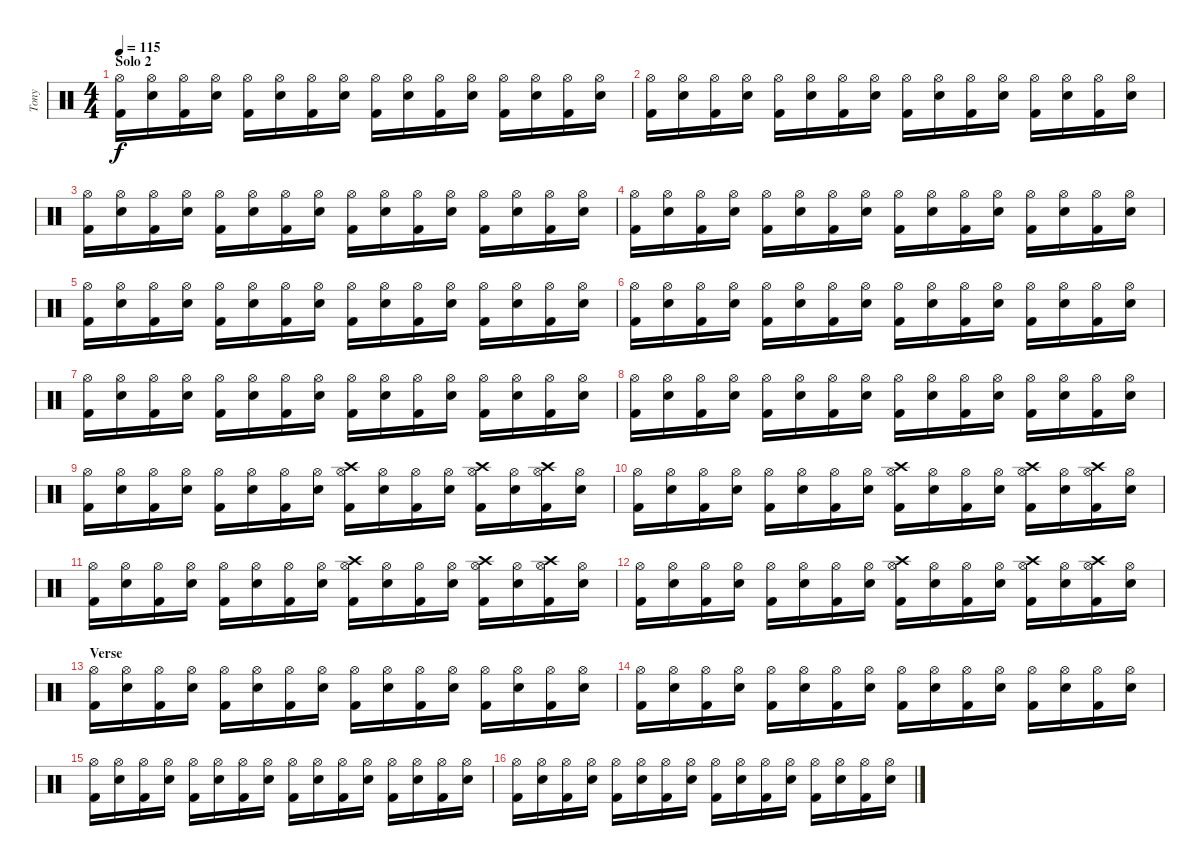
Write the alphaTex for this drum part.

\track ("Tony" "Tony") {instrument percussion}
\staff {score}
\articulation defaults
\ts (4 4)
\section ("" "Solo 2")
\tempo 115
\clef neutral
\ks c
("Kick (hit) 2" "Hi-Hat (open)").16{dy f} ("Electric Snare (hit)" "Hi-Hat (open)").16 ("Kick (hit) 2" "Hi-Hat (open)").16 ("Electric Snare (hit)" "Hi-Hat (open)").16 ("Kick (hit) 2" "Hi-Hat (open)").16 ("Electric Snare (hit)" "Hi-Hat (open)").16 ("Kick (hit) 2" "Hi-Hat (open)").16 ("Electric Snare (hit)" "Hi-Hat (open)").16 ("Kick (hit) 2" "Hi-Hat (open)").16 ("Electric Snare (hit)" "Hi-Hat (open)").16 ("Kick (hit) 2" "Hi-Hat (open)").16 ("Electric Snare (hit)" "Hi-Hat (open)").16 ("Kick (hit) 2" "Hi-Hat (open)").16 ("Electric Snare (hit)" "Hi-Hat (open)").16 ("Kick (hit) 2" "Hi-Hat (open)").16 ("Electric Snare (hit)" "Hi-Hat (open)").16 |
("Kick (hit) 2" "Hi-Hat (open)").16 ("Electric Snare (hit)" "Hi-Hat (open)").16 ("Kick (hit) 2" "Hi-Hat (open)").16 ("Electric Snare (hit)" "Hi-Hat (open)").16 ("Kick (hit) 2" "Hi-Hat (open)").16 ("Electric Snare (hit)" "Hi-Hat (open)").16 ("Kick (hit) 2" "Hi-Hat (open)").16 ("Electric Snare (hit)" "Hi-Hat (open)").16 ("Kick (hit) 2" "Hi-Hat (open)").16 ("Electric Snare (hit)" "Hi-Hat (open)").16 ("Kick (hit) 2" "Hi-Hat (open)").16 ("Electric Snare (hit)" "Hi-Hat (open)").16 ("Kick (hit) 2" "Hi-Hat (open)").16 ("Electric Snare (hit)" "Hi-Hat (open)").16 ("Kick (hit) 2" "Hi-Hat (open)").16 ("Electric Snare (hit)" "Hi-Hat (open)").16 |
("Kick (hit) 2" "Hi-Hat (open)").16 ("Electric Snare (hit)" "Hi-Hat (open)").16 ("Kick (hit) 2" "Hi-Hat (open)").16 ("Electric Snare (hit)" "Hi-Hat (open)").16 ("Kick (hit) 2" "Hi-Hat (open)").16 ("Electric Snare (hit)" "Hi-Hat (open)").16 ("Kick (hit) 2" "Hi-Hat (open)").16 ("Electric Snare (hit)" "Hi-Hat (open)").16 ("Kick (hit) 2" "Hi-Hat (open)").16 ("Electric Snare (hit)" "Hi-Hat (open)").16 ("Kick (hit) 2" "Hi-Hat (open)").16 ("Electric Snare (hit)" "Hi-Hat (open)").16 ("Kick (hit) 2" "Hi-Hat (open)").16 ("Electric Snare (hit)" "Hi-Hat (open)").16 ("Kick (hit) 2" "Hi-Hat (open)").16 ("Electric Snare (hit)" "Hi-Hat (open)").16 |
("Kick (hit) 2" "Hi-Hat (open)").16 ("Electric Snare (hit)" "Hi-Hat (open)").16 ("Kick (hit) 2" "Hi-Hat (open)").16 ("Electric Snare (hit)" "Hi-Hat (open)").16 ("Kick (hit) 2" "Hi-Hat (open)").16 ("Electric Snare (hit)" "Hi-Hat (open)").16 ("Kick (hit) 2" "Hi-Hat (open)").16 ("Electric Snare (hit)" "Hi-Hat (open)").16 ("Kick (hit) 2" "Hi-Hat (open)").16 ("Electric Snare (hit)" "Hi-Hat (open)").16 ("Kick (hit) 2" "Hi-Hat (open)").16 ("Electric Snare (hit)" "Hi-Hat (open)").16 ("Kick (hit) 2" "Hi-Hat (open)").16 ("Electric Snare (hit)" "Hi-Hat (open)").16 ("Kick (hit) 2" "Hi-Hat (open)").16 ("Electric Snare (hit)" "Hi-Hat (open)").16 |
("Kick (hit) 2" "Hi-Hat (open)").16 ("Electric Snare (hit)" "Hi-Hat (open)").16 ("Kick (hit) 2" "Hi-Hat (open)").16 ("Electric Snare (hit)" "Hi-Hat (open)").16 ("Kick (hit) 2" "Hi-Hat (open)").16 ("Electric Snare (hit)" "Hi-Hat (open)").16 ("Kick (hit) 2" "Hi-Hat (open)").16 ("Electric Snare (hit)" "Hi-Hat (open)").16 ("Kick (hit) 2" "Hi-Hat (open)").16 ("Electric Snare (hit)" "Hi-Hat (open)").16 ("Kick (hit) 2" "Hi-Hat (open)").16 ("Electric Snare (hit)" "Hi-Hat (open)").16 ("Kick (hit) 2" "Hi-Hat (open)").16 ("Electric Snare (hit)" "Hi-Hat (open)").16 ("Kick (hit) 2" "Hi-Hat (open)").16 ("Electric Snare (hit)" "Hi-Hat (open)").16 |
("Kick (hit) 2" "Hi-Hat (open)").16 ("Electric Snare (hit)" "Hi-Hat (open)").16 ("Kick (hit) 2" "Hi-Hat (open)").16 ("Electric Snare (hit)" "Hi-Hat (open)").16 ("Kick (hit) 2" "Hi-Hat (open)").16 ("Electric Snare (hit)" "Hi-Hat (open)").16 ("Kick (hit) 2" "Hi-Hat (open)").16 ("Electric Snare (hit)" "Hi-Hat (open)").16 ("Kick (hit) 2" "Hi-Hat (open)").16 ("Electric Snare (hit)" "Hi-Hat (open)").16 ("Kick (hit) 2" "Hi-Hat (open)").16 ("Electric Snare (hit)" "Hi-Hat (open)").16 ("Kick (hit) 2" "Hi-Hat (open)").16 ("Electric Snare (hit)" "Hi-Hat (open)").16 ("Kick (hit) 2" "Hi-Hat (open)").16 ("Electric Snare (hit)" "Hi-Hat (open)").16 |
("Kick (hit) 2" "Hi-Hat (open)").16 ("Electric Snare (hit)" "Hi-Hat (open)").16 ("Kick (hit) 2" "Hi-Hat (open)").16 ("Electric Snare (hit)" "Hi-Hat (open)").16 ("Kick (hit) 2" "Hi-Hat (open)").16 ("Electric Snare (hit)" "Hi-Hat (open)").16 ("Kick (hit) 2" "Hi-Hat (open)").16 ("Electric Snare (hit)" "Hi-Hat (open)").16 ("Kick (hit) 2" "Hi-Hat (open)").16 ("Electric Snare (hit)" "Hi-Hat (open)").16 ("Kick (hit) 2" "Hi-Hat (open)").16 ("Electric Snare (hit)" "Hi-Hat (open)").16 ("Kick (hit) 2" "Hi-Hat (open)").16 ("Electric Snare (hit)" "Hi-Hat (open)").16 ("Kick (hit) 2" "Hi-Hat (open)").16 ("Electric Snare (hit)" "Hi-Hat (open)").16 |
("Kick (hit) 2" "Hi-Hat (open)").16 ("Electric Snare (hit)" "Hi-Hat (open)").16 ("Kick (hit) 2" "Hi-Hat (open)").16 ("Electric Snare (hit)" "Hi-Hat (open)").16 ("Kick (hit) 2" "Hi-Hat (open)").16 ("Electric Snare (hit)" "Hi-Hat (open)").16 ("Kick (hit) 2" "Hi-Hat (open)").16 ("Electric Snare (hit)" "Hi-Hat (open)").16 ("Kick (hit) 2" "Hi-Hat (open)").16 ("Electric Snare (hit)" "Hi-Hat (open)").16 ("Kick (hit) 2" "Hi-Hat (open)").16 ("Electric Snare (hit)" "Hi-Hat (open)").16 ("Kick (hit) 2" "Hi-Hat (open)").16 ("Electric Snare (hit)" "Hi-Hat (open)").16 ("Kick (hit) 2" "Hi-Hat (open)").16 ("Electric Snare (hit)" "Hi-Hat (open)").16 |
("Kick (hit) 2" "Hi-Hat (open)").16 ("Electric Snare (hit)" "Hi-Hat (open)").16 ("Kick (hit) 2" "Hi-Hat (open)").16 ("Electric Snare (hit)" "Hi-Hat (open)").16 ("Kick (hit) 2" "Hi-Hat (open)").16 ("Electric Snare (hit)" "Hi-Hat (open)").16 ("Kick (hit) 2" "Hi-Hat (open)").16 ("Electric Snare (hit)" "Hi-Hat (open)").16 ("Kick (hit) 2" "Hi-Hat (open)" "Crash high (hit)").16 ("Electric Snare (hit)" "Hi-Hat (open)").16 ("Kick (hit) 2" "Hi-Hat (open)").16 ("Electric Snare (hit)" "Hi-Hat (open)").16 ("Kick (hit) 2" "Hi-Hat (open)" "Crash high (hit)").16 ("Electric Snare (hit)" "Hi-Hat (open)").16 ("Kick (hit) 2" "Hi-Hat (open)" "Crash high (hit)").16 ("Electric Snare (hit)" "Hi-Hat (open)").16 |
("Kick (hit) 2" "Hi-Hat (open)").16 ("Electric Snare (hit)" "Hi-Hat (open)").16 ("Kick (hit) 2" "Hi-Hat (open)").16 ("Electric Snare (hit)" "Hi-Hat (open)").16 ("Kick (hit) 2" "Hi-Hat (open)").16 ("Electric Snare (hit)" "Hi-Hat (open)").16 ("Kick (hit) 2" "Hi-Hat (open)").16 ("Electric Snare (hit)" "Hi-Hat (open)").16 ("Kick (hit) 2" "Hi-Hat (open)" "Crash high (hit)").16 ("Electric Snare (hit)" "Hi-Hat (open)").16 ("Kick (hit) 2" "Hi-Hat (open)").16 ("Electric Snare (hit)" "Hi-Hat (open)").16 ("Kick (hit) 2" "Hi-Hat (open)" "Crash high (hit)").16 ("Electric Snare (hit)" "Hi-Hat (open)").16 ("Kick (hit) 2" "Hi-Hat (open)" "Crash high (hit)").16 ("Electric Snare (hit)" "Hi-Hat (open)").16 |
("Kick (hit) 2" "Hi-Hat (open)").16 ("Electric Snare (hit)" "Hi-Hat (open)").16 ("Kick (hit) 2" "Hi-Hat (open)").16 ("Electric Snare (hit)" "Hi-Hat (open)").16 ("Kick (hit) 2" "Hi-Hat (open)").16 ("Electric Snare (hit)" "Hi-Hat (open)").16 ("Kick (hit) 2" "Hi-Hat (open)").16 ("Electric Snare (hit)" "Hi-Hat (open)").16 ("Kick (hit) 2" "Hi-Hat (open)" "Crash high (hit)").16 ("Electric Snare (hit)" "Hi-Hat (open)").16 ("Kick (hit) 2" "Hi-Hat (open)").16 ("Electric Snare (hit)" "Hi-Hat (open)").16 ("Kick (hit) 2" "Hi-Hat (open)" "Crash high (hit)").16 ("Electric Snare (hit)" "Hi-Hat (open)").16 ("Kick (hit) 2" "Hi-Hat (open)" "Crash high (hit)").16 ("Electric Snare (hit)" "Hi-Hat (open)").16 |
("Kick (hit) 2" "Hi-Hat (open)").16 ("Electric Snare (hit)" "Hi-Hat (open)").16 ("Kick (hit) 2" "Hi-Hat (open)").16 ("Electric Snare (hit)" "Hi-Hat (open)").16 ("Kick (hit) 2" "Hi-Hat (open)").16 ("Electric Snare (hit)" "Hi-Hat (open)").16 ("Kick (hit) 2" "Hi-Hat (open)").16 ("Electric Snare (hit)" "Hi-Hat (open)").16 ("Kick (hit) 2" "Hi-Hat (open)" "Crash high (hit)").16 ("Electric Snare (hit)" "Hi-Hat (open)").16 ("Kick (hit) 2" "Hi-Hat (open)").16 ("Electric Snare (hit)" "Hi-Hat (open)").16 ("Kick (hit) 2" "Hi-Hat (open)" "Crash high (hit)").16 ("Electric Snare (hit)" "Hi-Hat (open)").16 ("Kick (hit) 2" "Hi-Hat (open)" "Crash high (hit)").16 ("Electric Snare (hit)" "Hi-Hat (open)").16 |
\section ("" "Verse")
("Kick (hit) 2" "Hi-Hat (open)").16 ("Electric Snare (hit)" "Hi-Hat (open)").16 ("Kick (hit) 2" "Hi-Hat (open)").16 ("Electric Snare (hit)" "Hi-Hat (open)").16 ("Kick (hit) 2" "Hi-Hat (open)").16 ("Electric Snare (hit)" "Hi-Hat (open)").16 ("Kick (hit) 2" "Hi-Hat (open)").16 ("Electric Snare (hit)" "Hi-Hat (open)").16 ("Kick (hit) 2" "Hi-Hat (open)").16 ("Electric Snare (hit)" "Hi-Hat (open)").16 ("Kick (hit) 2" "Hi-Hat (open)").16 ("Electric Snare (hit)" "Hi-Hat (open)").16 ("Kick (hit) 2" "Hi-Hat (open)").16 ("Electric Snare (hit)" "Hi-Hat (open)").16 ("Kick (hit) 2" "Hi-Hat (open)").16 ("Electric Snare (hit)" "Hi-Hat (open)").16 |
("Kick (hit) 2" "Hi-Hat (open)").16 ("Electric Snare (hit)" "Hi-Hat (open)").16 ("Kick (hit) 2" "Hi-Hat (open)").16 ("Electric Snare (hit)" "Hi-Hat (open)").16 ("Kick (hit) 2" "Hi-Hat (open)").16 ("Electric Snare (hit)" "Hi-Hat (open)").16 ("Kick (hit) 2" "Hi-Hat (open)").16 ("Electric Snare (hit)" "Hi-Hat (open)").16 ("Kick (hit) 2" "Hi-Hat (open)").16 ("Electric Snare (hit)" "Hi-Hat (open)").16 ("Kick (hit) 2" "Hi-Hat (open)").16 ("Electric Snare (hit)" "Hi-Hat (open)").16 ("Kick (hit) 2" "Hi-Hat (open)").16 ("Electric Snare (hit)" "Hi-Hat (open)").16 ("Kick (hit) 2" "Hi-Hat (open)").16 ("Electric Snare (hit)" "Hi-Hat (open)").16 |
("Kick (hit) 2" "Hi-Hat (open)").16 ("Electric Snare (hit)" "Hi-Hat (open)").16 ("Kick (hit) 2" "Hi-Hat (open)").16 ("Electric Snare (hit)" "Hi-Hat (open)").16 ("Kick (hit) 2" "Hi-Hat (open)").16 ("Electric Snare (hit)" "Hi-Hat (open)").16 ("Kick (hit) 2" "Hi-Hat (open)").16 ("Electric Snare (hit)" "Hi-Hat (open)").16 ("Kick (hit) 2" "Hi-Hat (open)").16 ("Electric Snare (hit)" "Hi-Hat (open)").16 ("Kick (hit) 2" "Hi-Hat (open)").16 ("Electric Snare (hit)" "Hi-Hat (open)").16 ("Kick (hit) 2" "Hi-Hat (open)").16 ("Electric Snare (hit)" "Hi-Hat (open)").16 ("Kick (hit) 2" "Hi-Hat (open)").16 ("Electric Snare (hit)" "Hi-Hat (open)").16 |
("Kick (hit) 2" "Hi-Hat (open)").16 ("Electric Snare (hit)" "Hi-Hat (open)").16 ("Kick (hit) 2" "Hi-Hat (open)").16 ("Electric Snare (hit)" "Hi-Hat (open)").16 ("Kick (hit) 2" "Hi-Hat (open)").16 ("Electric Snare (hit)" "Hi-Hat (open)").16 ("Kick (hit) 2" "Hi-Hat (open)").16 ("Electric Snare (hit)" "Hi-Hat (open)").16 ("Kick (hit) 2" "Hi-Hat (open)").16 ("Electric Snare (hit)" "Hi-Hat (open)").16 ("Kick (hit) 2" "Hi-Hat (open)").16 ("Electric Snare (hit)" "Hi-Hat (open)").16 ("Kick (hit) 2" "Hi-Hat (open)").16 ("Electric Snare (hit)" "Hi-Hat (open)").16 ("Kick (hit) 2" "Hi-Hat (open)").16 ("Electric Snare (hit)" "Hi-Hat (open)").16
